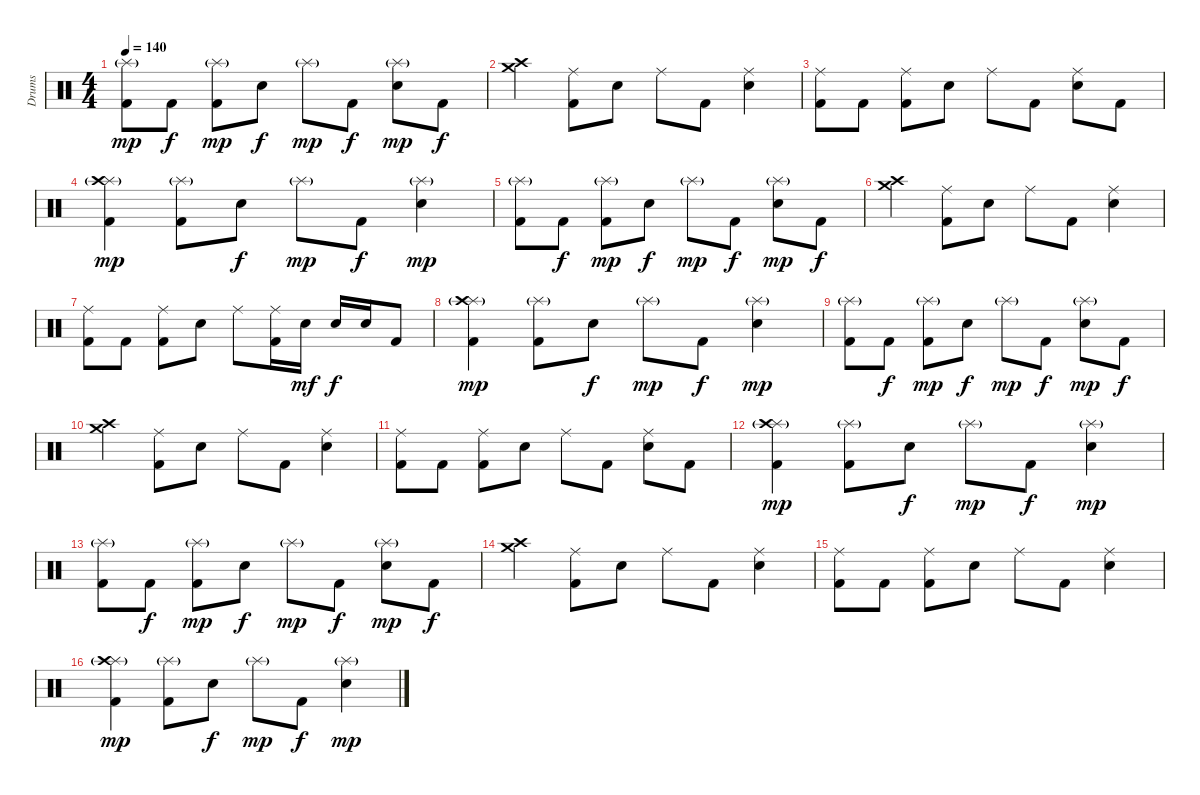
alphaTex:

\track ("Drums" "Drums") {instrument percussion}
\staff {score}
\articulation defaults
\ts (4 4)
\tempo 140
\clef neutral
\ks c
("Splash (hit)"{g} "Kick (hit) 2").8{dy mp} "Kick (hit) 2".8{dy f} ("Splash (hit)"{g} "Kick (hit) 2").8{dy mp} "Electric Snare (hit)".8{dy f} "Splash (hit)"{g}.8{dy mp} "Kick (hit) 2".8{dy f} ("Splash (hit)"{g} "Electric Snare (hit)").8{dy mp} "Kick (hit) 2".8{dy f} |
("Crash medium (hit)" "Crash high (hit)").4 ("Ride (middle)" "Kick (hit) 2").8 "Electric Snare (hit)".8 "Ride (middle)".8 "Kick (hit) 2".8 ("Ride (middle)" "Electric Snare (hit)").4 |
("Ride (middle)" "Kick (hit) 2").8 "Kick (hit) 2".8 ("Ride (middle)" "Kick (hit) 2").8 "Electric Snare (hit)".8 "Ride (middle)".8 "Kick (hit) 2".8 ("Ride (middle)" "Electric Snare (hit)").8 "Kick (hit) 2".8 |
("Splash (hit)"{g} "Crash high (hit)" "Kick (hit) 2").4{dy mp} ("Splash (hit)"{g} "Kick (hit) 2").8 "Electric Snare (hit)".8{dy f} "Splash (hit)"{g}.8{dy mp} "Kick (hit) 2".8{dy f} ("Splash (hit)"{g} "Electric Snare (hit)").4{dy mp} |
("Splash (hit)"{g} "Kick (hit) 2").8 "Kick (hit) 2".8{dy f} ("Splash (hit)"{g} "Kick (hit) 2").8{dy mp} "Electric Snare (hit)".8{dy f} "Splash (hit)"{g}.8{dy mp} "Kick (hit) 2".8{dy f} ("Splash (hit)"{g} "Electric Snare (hit)").8{dy mp} "Kick (hit) 2".8{dy f} |
("Crash medium (hit)" "Crash high (hit)").4 ("Ride (middle)" "Kick (hit) 2").8 "Electric Snare (hit)".8 "Ride (middle)".8 "Kick (hit) 2".8 ("Ride (middle)" "Electric Snare (hit)").4 |
("Ride (middle)" "Kick (hit) 2").8 "Kick (hit) 2".8 ("Ride (middle)" "Kick (hit) 2").8 "Electric Snare (hit)".8 "Ride (middle)".8 ("Ride (middle)" "Kick (hit) 2").16 "Electric Snare (hit)".16{dy mf} "Electric Snare (hit)".16{dy f} "Electric Snare (hit)".16 "Kick (hit) 2".8 |
("Splash (hit)"{g} "Crash high (hit)" "Kick (hit) 2").4{dy mp} ("Splash (hit)"{g} "Kick (hit) 2").8 "Electric Snare (hit)".8{dy f} "Splash (hit)"{g}.8{dy mp} "Kick (hit) 2".8{dy f} ("Splash (hit)"{g} "Electric Snare (hit)").4{dy mp} |
("Splash (hit)"{g} "Kick (hit) 2").8 "Kick (hit) 2".8{dy f} ("Splash (hit)"{g} "Kick (hit) 2").8{dy mp} "Electric Snare (hit)".8{dy f} "Splash (hit)"{g}.8{dy mp} "Kick (hit) 2".8{dy f} ("Splash (hit)"{g} "Electric Snare (hit)").8{dy mp} "Kick (hit) 2".8{dy f} |
("Crash medium (hit)" "Crash high (hit)").4 ("Ride (middle)" "Kick (hit) 2").8 "Electric Snare (hit)".8 "Ride (middle)".8 "Kick (hit) 2".8 ("Ride (middle)" "Electric Snare (hit)").4 |
("Ride (middle)" "Kick (hit) 2").8 "Kick (hit) 2".8 ("Ride (middle)" "Kick (hit) 2").8 "Electric Snare (hit)".8 "Ride (middle)".8 "Kick (hit) 2".8 ("Ride (middle)" "Electric Snare (hit)").8 "Kick (hit) 2".8 |
("Splash (hit)"{g} "Crash high (hit)" "Kick (hit) 2").4{dy mp} ("Splash (hit)"{g} "Kick (hit) 2").8 "Electric Snare (hit)".8{dy f} "Splash (hit)"{g}.8{dy mp} "Kick (hit) 2".8{dy f} ("Splash (hit)"{g} "Electric Snare (hit)").4{dy mp} |
("Splash (hit)"{g} "Kick (hit) 2").8 "Kick (hit) 2".8{dy f} ("Splash (hit)"{g} "Kick (hit) 2").8{dy mp} "Electric Snare (hit)".8{dy f} "Splash (hit)"{g}.8{dy mp} "Kick (hit) 2".8{dy f} ("Splash (hit)"{g} "Electric Snare (hit)").8{dy mp} "Kick (hit) 2".8{dy f} |
("Crash medium (hit)" "Crash high (hit)").4 ("Ride (middle)" "Kick (hit) 2").8 "Electric Snare (hit)".8 "Ride (middle)".8 "Kick (hit) 2".8 ("Ride (middle)" "Electric Snare (hit)").4 |
("Ride (middle)" "Kick (hit) 2").8 "Kick (hit) 2".8 ("Ride (middle)" "Kick (hit) 2").8 "Electric Snare (hit)".8 "Ride (middle)".8 "Kick (hit) 2".8 ("Ride (middle)" "Electric Snare (hit)").4 |
("Splash (hit)"{g} "Crash high (hit)" "Kick (hit) 2").4{dy mp} ("Splash (hit)"{g} "Kick (hit) 2").8 "Electric Snare (hit)".8{dy f} "Splash (hit)"{g}.8{dy mp} "Kick (hit) 2".8{dy f} ("Splash (hit)"{g} "Electric Snare (hit)").4{dy mp}
